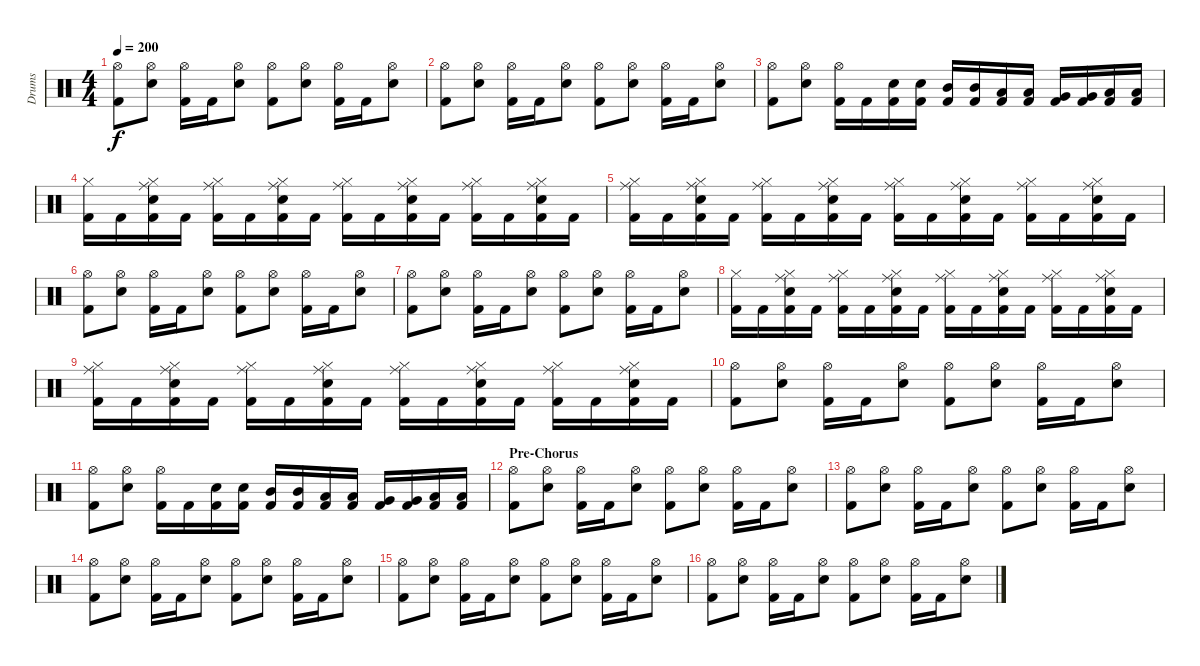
\track ("Drums" "Drums") {instrument percussion}
\staff {score}
\articulation defaults
\ts (4 4)
\tempo 200
\clef neutral
\ks c
("Hi-Hat (open)" "Kick (hit) 2").8{dy f} ("Hi-Hat (open)" "Snare (hit) 2").8 ("Hi-Hat (open)" "Kick (hit) 2").16 "Kick (hit) 2".16 ("Hi-Hat (open)" "Snare (hit) 2").8 ("Hi-Hat (open)" "Kick (hit) 2").8 ("Hi-Hat (open)" "Snare (hit) 2").8 ("Hi-Hat (open)" "Kick (hit) 2").16 "Kick (hit) 2".16 ("Hi-Hat (open)" "Snare (hit) 2").8 |
("Hi-Hat (open)" "Kick (hit) 2").8 ("Hi-Hat (open)" "Snare (hit) 2").8 ("Hi-Hat (open)" "Kick (hit) 2").16 "Kick (hit) 2".16 ("Hi-Hat (open)" "Snare (hit) 2").8 ("Hi-Hat (open)" "Kick (hit) 2").8 ("Hi-Hat (open)" "Snare (hit) 2").8 ("Hi-Hat (open)" "Kick (hit) 2").16 "Kick (hit) 2".16 ("Hi-Hat (open)" "Snare (hit) 2").8 |
("Hi-Hat (open)" "Kick (hit) 2").8 ("Hi-Hat (open)" "Snare (hit) 2").8 ("Hi-Hat (open)" "Kick (hit) 2").16 "Kick (hit) 2".16 ("Snare (hit) 2" "Kick (hit) 2").16 ("Snare (hit) 2" "Kick (hit) 2").16 ("Mid Tom (hit)" "Kick (hit) 2").16 ("Mid Tom (hit)" "Kick (hit) 2").16 ("Low Tom (hit)" "Kick (hit) 2").16 ("Low Tom (hit)" "Kick (hit) 2").16 ("Very Low Tom (hit)" "Kick (hit) 2").16 ("Very Low Tom (hit)" "Kick (hit) 2").16 ("Low Floor Tom (hit)" "Kick (hit) 2").16 ("Low Floor Tom (hit)" "Kick (hit) 2").16 |
("Hi-Hat (closed)" "Kick (hit) 2").16 "Kick (hit) 2".16 ("Hi-Hat (closed)" "Ride (middle)" "Snare (hit) 2" "Kick (hit) 2").16 "Kick (hit) 2".16 ("Hi-Hat (closed)" "Ride (middle)" "Kick (hit) 2").16 "Kick (hit) 2".16 ("Hi-Hat (closed)" "Ride (middle)" "Snare (hit) 2" "Kick (hit) 2").16 "Kick (hit) 2".16 ("Hi-Hat (closed)" "Ride (middle)" "Kick (hit) 2").16 "Kick (hit) 2".16 ("Hi-Hat (closed)" "Ride (middle)" "Snare (hit) 2" "Kick (hit) 2").16 "Kick (hit) 2".16 ("Hi-Hat (closed)" "Ride (middle)" "Kick (hit) 2").16 "Kick (hit) 2".16 ("Hi-Hat (closed)" "Ride (middle)" "Snare (hit) 2" "Kick (hit) 2").16 "Kick (hit) 2".16 |
("Hi-Hat (closed)" "Ride (middle)" "Kick (hit) 2").16 "Kick (hit) 2".16 ("Hi-Hat (closed)" "Ride (middle)" "Snare (hit) 2" "Kick (hit) 2").16 "Kick (hit) 2".16 ("Hi-Hat (closed)" "Ride (middle)" "Kick (hit) 2").16 "Kick (hit) 2".16 ("Hi-Hat (closed)" "Ride (middle)" "Snare (hit) 2" "Kick (hit) 2").16 "Kick (hit) 2".16 ("Hi-Hat (closed)" "Ride (middle)" "Kick (hit) 2").16 "Kick (hit) 2".16 ("Hi-Hat (closed)" "Ride (middle)" "Snare (hit) 2" "Kick (hit) 2").16 "Kick (hit) 2".16 ("Hi-Hat (closed)" "Ride (middle)" "Kick (hit) 2").16 "Kick (hit) 2".16 ("Hi-Hat (closed)" "Ride (middle)" "Snare (hit) 2" "Kick (hit) 2").16 "Kick (hit) 2".16 |
("Hi-Hat (open)" "Kick (hit) 2").8 ("Hi-Hat (open)" "Snare (hit) 2").8 ("Hi-Hat (open)" "Kick (hit) 2").16 "Kick (hit) 2".16 ("Hi-Hat (open)" "Snare (hit) 2").8 ("Hi-Hat (open)" "Kick (hit) 2").8 ("Hi-Hat (open)" "Snare (hit) 2").8 ("Hi-Hat (open)" "Kick (hit) 2").16 "Kick (hit) 2".16 ("Hi-Hat (open)" "Snare (hit) 2").8 |
("Hi-Hat (open)" "Kick (hit) 2").8 ("Hi-Hat (open)" "Snare (hit) 2").8 ("Hi-Hat (open)" "Kick (hit) 2").16 "Kick (hit) 2".16 ("Hi-Hat (open)" "Snare (hit) 2").8 ("Hi-Hat (open)" "Kick (hit) 2").8 ("Hi-Hat (open)" "Snare (hit) 2").8 ("Hi-Hat (open)" "Kick (hit) 2").16 "Kick (hit) 2".16 ("Hi-Hat (open)" "Snare (hit) 2").8 |
("Hi-Hat (closed)" "Kick (hit) 2").16 "Kick (hit) 2".16 ("Hi-Hat (closed)" "Ride (middle)" "Snare (hit) 2" "Kick (hit) 2").16 "Kick (hit) 2".16 ("Hi-Hat (closed)" "Ride (middle)" "Kick (hit) 2").16 "Kick (hit) 2".16 ("Hi-Hat (closed)" "Ride (middle)" "Snare (hit) 2" "Kick (hit) 2").16 "Kick (hit) 2".16 ("Hi-Hat (closed)" "Ride (middle)" "Kick (hit) 2").16 "Kick (hit) 2".16 ("Hi-Hat (closed)" "Ride (middle)" "Snare (hit) 2" "Kick (hit) 2").16 "Kick (hit) 2".16 ("Hi-Hat (closed)" "Ride (middle)" "Kick (hit) 2").16 "Kick (hit) 2".16 ("Hi-Hat (closed)" "Ride (middle)" "Snare (hit) 2" "Kick (hit) 2").16 "Kick (hit) 2".16 |
("Hi-Hat (closed)" "Ride (middle)" "Kick (hit) 2").16 "Kick (hit) 2".16 ("Hi-Hat (closed)" "Ride (middle)" "Snare (hit) 2" "Kick (hit) 2").16 "Kick (hit) 2".16 ("Hi-Hat (closed)" "Ride (middle)" "Kick (hit) 2").16 "Kick (hit) 2".16 ("Hi-Hat (closed)" "Ride (middle)" "Snare (hit) 2" "Kick (hit) 2").16 "Kick (hit) 2".16 ("Hi-Hat (closed)" "Ride (middle)" "Kick (hit) 2").16 "Kick (hit) 2".16 ("Hi-Hat (closed)" "Ride (middle)" "Snare (hit) 2" "Kick (hit) 2").16 "Kick (hit) 2".16 ("Hi-Hat (closed)" "Ride (middle)" "Kick (hit) 2").16 "Kick (hit) 2".16 ("Hi-Hat (closed)" "Ride (middle)" "Snare (hit) 2" "Kick (hit) 2").16 "Kick (hit) 2".16 |
("Hi-Hat (open)" "Kick (hit) 2").8 ("Hi-Hat (open)" "Snare (hit) 2").8 ("Hi-Hat (open)" "Kick (hit) 2").16 "Kick (hit) 2".16 ("Hi-Hat (open)" "Snare (hit) 2").8 ("Hi-Hat (open)" "Kick (hit) 2").8 ("Hi-Hat (open)" "Snare (hit) 2").8 ("Hi-Hat (open)" "Kick (hit) 2").16 "Kick (hit) 2".16 ("Hi-Hat (open)" "Snare (hit) 2").8 |
("Hi-Hat (open)" "Kick (hit) 2").8 ("Hi-Hat (open)" "Snare (hit) 2").8 ("Hi-Hat (open)" "Kick (hit) 2").16 "Kick (hit) 2".16 ("Snare (hit) 2" "Kick (hit) 2").16 ("Snare (hit) 2" "Kick (hit) 2").16 ("Mid Tom (hit)" "Kick (hit) 2").16 ("Mid Tom (hit)" "Kick (hit) 2").16 ("Low Tom (hit)" "Kick (hit) 2").16 ("Low Tom (hit)" "Kick (hit) 2").16 ("Very Low Tom (hit)" "Kick (hit) 2").16 ("Very Low Tom (hit)" "Kick (hit) 2").16 ("Low Floor Tom (hit)" "Kick (hit) 2").16 ("Low Floor Tom (hit)" "Kick (hit) 2").16 |
\section ("" "Pre-Chorus")
("Hi-Hat (open)" "Kick (hit) 2").8 ("Hi-Hat (open)" "Snare (hit) 2").8 ("Hi-Hat (open)" "Kick (hit) 2").16 "Kick (hit) 2".16 ("Hi-Hat (open)" "Snare (hit) 2").8 ("Hi-Hat (open)" "Kick (hit) 2").8 ("Hi-Hat (open)" "Snare (hit) 2").8 ("Hi-Hat (open)" "Kick (hit) 2").16 "Kick (hit) 2".16 ("Hi-Hat (open)" "Snare (hit) 2").8 |
("Hi-Hat (open)" "Kick (hit) 2").8 ("Hi-Hat (open)" "Snare (hit) 2").8 ("Hi-Hat (open)" "Kick (hit) 2").16 "Kick (hit) 2".16 ("Hi-Hat (open)" "Snare (hit) 2").8 ("Hi-Hat (open)" "Kick (hit) 2").8 ("Hi-Hat (open)" "Snare (hit) 2").8 ("Hi-Hat (open)" "Kick (hit) 2").16 "Kick (hit) 2".16 ("Hi-Hat (open)" "Snare (hit) 2").8 |
("Hi-Hat (open)" "Kick (hit) 2").8 ("Hi-Hat (open)" "Snare (hit) 2").8 ("Hi-Hat (open)" "Kick (hit) 2").16 "Kick (hit) 2".16 ("Hi-Hat (open)" "Snare (hit) 2").8 ("Hi-Hat (open)" "Kick (hit) 2").8 ("Hi-Hat (open)" "Snare (hit) 2").8 ("Hi-Hat (open)" "Kick (hit) 2").16 "Kick (hit) 2".16 ("Hi-Hat (open)" "Snare (hit) 2").8 |
("Hi-Hat (open)" "Kick (hit) 2").8 ("Hi-Hat (open)" "Snare (hit) 2").8 ("Hi-Hat (open)" "Kick (hit) 2").16 "Kick (hit) 2".16 ("Hi-Hat (open)" "Snare (hit) 2").8 ("Hi-Hat (open)" "Kick (hit) 2").8 ("Hi-Hat (open)" "Snare (hit) 2").8 ("Hi-Hat (open)" "Kick (hit) 2").16 "Kick (hit) 2".16 ("Hi-Hat (open)" "Snare (hit) 2").8 |
("Hi-Hat (open)" "Kick (hit) 2").8 ("Hi-Hat (open)" "Snare (hit) 2").8 ("Hi-Hat (open)" "Kick (hit) 2").16 "Kick (hit) 2".16 ("Hi-Hat (open)" "Snare (hit) 2").8 ("Hi-Hat (open)" "Kick (hit) 2").8 ("Hi-Hat (open)" "Snare (hit) 2").8 ("Hi-Hat (open)" "Kick (hit) 2").16 "Kick (hit) 2".16 ("Hi-Hat (open)" "Snare (hit) 2").8
